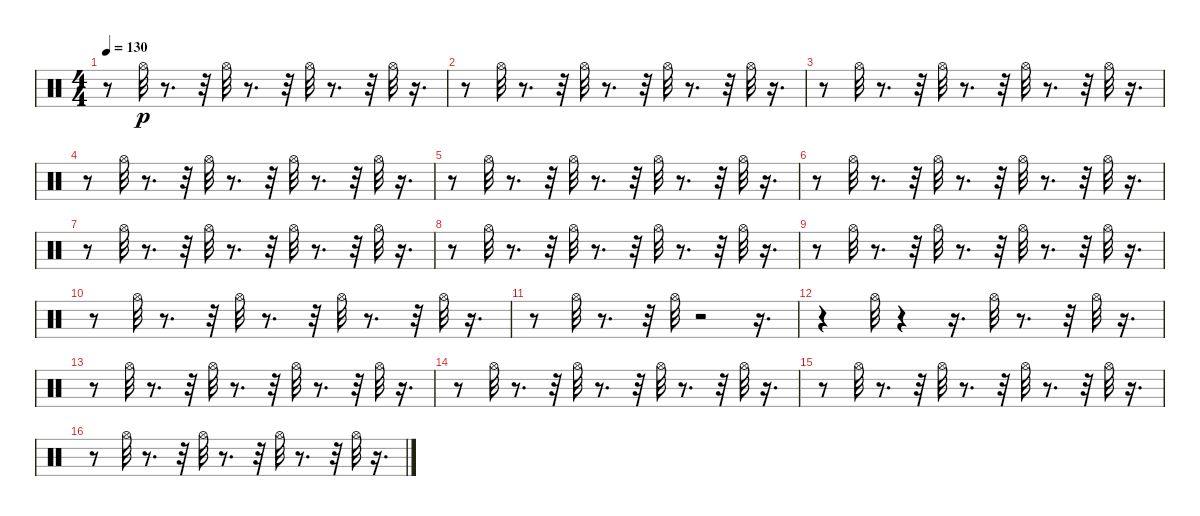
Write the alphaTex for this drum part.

\track "" {instrument percussion}
\staff {score}
\articulation defaults
\ts (4 4)
\tempo 130
\clef neutral
\ks c
r.8{dy p} "Hi-Hat (open)".32 r.8{d} r.32 "Hi-Hat (open)".32 r.8{d} r.32 "Hi-Hat (open)".32 r.8{d} r.32 "Hi-Hat (open)".32 r.16{d} |
r.8 "Hi-Hat (open)".32 r.8{d} r.32 "Hi-Hat (open)".32 r.8{d} r.32 "Hi-Hat (open)".32 r.8{d} r.32 "Hi-Hat (open)".32 r.16{d} |
r.8 "Hi-Hat (open)".32 r.8{d} r.32 "Hi-Hat (open)".32 r.8{d} r.32 "Hi-Hat (open)".32 r.8{d} r.32 "Hi-Hat (open)".32 r.16{d} |
r.8 "Hi-Hat (open)".32 r.8{d} r.32 "Hi-Hat (open)".32 r.8{d} r.32 "Hi-Hat (open)".32 r.8{d} r.32 "Hi-Hat (open)".32 r.16{d} |
r.8 "Hi-Hat (open)".32 r.8{d} r.32 "Hi-Hat (open)".32 r.8{d} r.32 "Hi-Hat (open)".32 r.8{d} r.32 "Hi-Hat (open)".32 r.16{d} |
r.8 "Hi-Hat (open)".32 r.8{d} r.32 "Hi-Hat (open)".32 r.8{d} r.32 "Hi-Hat (open)".32 r.8{d} r.32 "Hi-Hat (open)".32 r.16{d} |
r.8 "Hi-Hat (open)".32 r.8{d} r.32 "Hi-Hat (open)".32 r.8{d} r.32 "Hi-Hat (open)".32 r.8{d} r.32 "Hi-Hat (open)".32 r.16{d} |
r.8 "Hi-Hat (open)".32 r.8{d} r.32 "Hi-Hat (open)".32 r.8{d} r.32 "Hi-Hat (open)".32 r.8{d} r.32 "Hi-Hat (open)".32 r.16{d} |
r.8 "Hi-Hat (open)".32 r.8{d} r.32 "Hi-Hat (open)".32 r.8{d} r.32 "Hi-Hat (open)".32 r.8{d} r.32 "Hi-Hat (open)".32 r.16{d} |
r.8 "Hi-Hat (open)".32 r.8{d} r.32 "Hi-Hat (open)".32 r.8{d} r.32 "Hi-Hat (open)".32 r.8{d} r.32 "Hi-Hat (open)".32 r.16{d} |
r.8 "Hi-Hat (open)".32 r.8{d} r.32 "Hi-Hat (open)".32 r.2 r.16{d} |
r.4 "Hi-Hat (open)".32 r.4 r.16{d} "Hi-Hat (open)".32 r.8{d} r.32 "Hi-Hat (open)".32 r.16{d} |
r.8 "Hi-Hat (open)".32 r.8{d} r.32 "Hi-Hat (open)".32 r.8{d} r.32 "Hi-Hat (open)".32 r.8{d} r.32 "Hi-Hat (open)".32 r.16{d} |
r.8 "Hi-Hat (open)".32 r.8{d} r.32 "Hi-Hat (open)".32 r.8{d} r.32 "Hi-Hat (open)".32 r.8{d} r.32 "Hi-Hat (open)".32 r.16{d} |
r.8 "Hi-Hat (open)".32 r.8{d} r.32 "Hi-Hat (open)".32 r.8{d} r.32 "Hi-Hat (open)".32 r.8{d} r.32 "Hi-Hat (open)".32 r.16{d} |
r.8 "Hi-Hat (open)".32 r.8{d} r.32 "Hi-Hat (open)".32 r.8{d} r.32 "Hi-Hat (open)".32 r.8{d} r.32 "Hi-Hat (open)".32 r.16{d}
